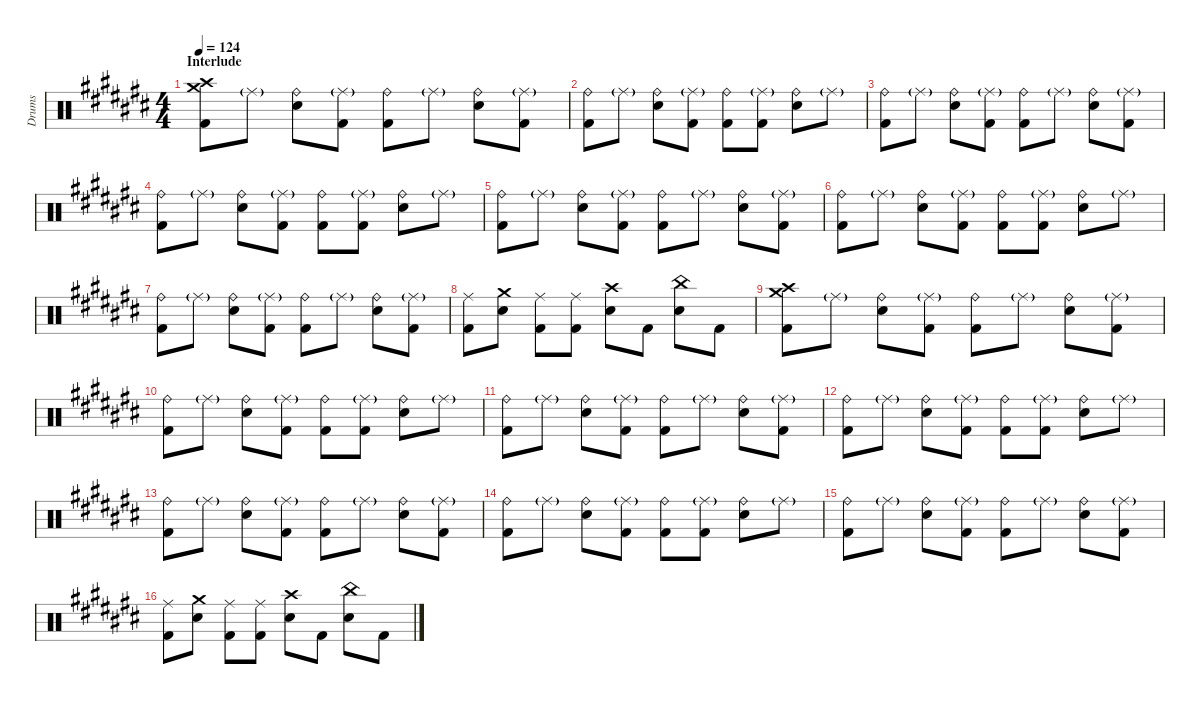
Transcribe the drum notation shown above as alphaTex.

\hideDynamics
\bracketExtendMode nobrackets
\otherSystemsTrackNameOrientation horizontal
\track ("Drumkit" "Drums") {defaultSystemsLayout 4 instrument percussion}
\staff {score}
\articulation defaults
\ts (4 4)
\section ("" "Interlude")
\tempo 124
\clef neutral
\ks c#
("Crash medium (hit)"{acc forcenatural} "Kick (hit) 2"{acc forcenatural} "Crash high (hit)"{acc forcenatural}).8{dy ff beam Down} "Ride (middle)"{g acc forcenatural}.8{beam Down} ("Ride (bell)"{acc forcenatural} "Snare (hit) 2"{acc forcenatural}).8{beam Down} ("Ride (middle)"{g acc forcenatural} "Kick (hit) 2"{acc forcenatural}).8{beam Down} ("Ride (bell)"{acc forcenatural} "Kick (hit) 2"{acc forcenatural}).8{beam Down} "Ride (middle)"{g acc forcenatural}.8{beam Down} ("Ride (bell)"{acc forcenatural} "Snare (hit) 2"{acc forcenatural}).8{beam Down} ("Ride (middle)"{g acc forcenatural} "Kick (hit) 2"{acc forcenatural}).8{beam Down} |
("Kick (hit) 2"{acc forcenatural} "Ride (bell)"{acc forcenatural}).8{beam Down} "Ride (middle)"{g acc forcenatural}.8{beam Down} ("Ride (bell)"{acc forcenatural} "Snare (hit) 2"{acc forcenatural}).8{beam Down} ("Ride (middle)"{g acc forcenatural} "Kick (hit) 2"{acc forcenatural}).8{beam Down} ("Ride (bell)"{acc forcenatural} "Kick (hit) 2"{acc forcenatural}).8{beam Down} ("Ride (middle)"{g acc forcenatural} "Kick (hit) 2"{acc forcenatural}).8{beam Down} ("Ride (bell)"{acc forcenatural} "Snare (hit) 2"{acc forcenatural}).8{beam Down} "Ride (middle)"{g acc forcenatural}.8{beam Down} |
("Kick (hit) 2"{acc forcenatural} "Ride (bell)"{acc forcenatural}).8{beam Down} "Ride (middle)"{g acc forcenatural}.8{beam Down} ("Ride (bell)"{acc forcenatural} "Snare (hit) 2"{acc forcenatural}).8{beam Down} ("Ride (middle)"{g acc forcenatural} "Kick (hit) 2"{acc forcenatural}).8{beam Down} ("Ride (bell)"{acc forcenatural} "Kick (hit) 2"{acc forcenatural}).8{beam Down} "Ride (middle)"{g acc forcenatural}.8{beam Down} ("Ride (bell)"{acc forcenatural} "Snare (hit) 2"{acc forcenatural}).8{beam Down} ("Ride (middle)"{g acc forcenatural} "Kick (hit) 2"{acc forcenatural}).8{beam Down} |
("Kick (hit) 2"{acc forcenatural} "Ride (bell)"{acc forcenatural}).8{beam Down} "Ride (middle)"{g acc forcenatural}.8{beam Down} ("Ride (bell)"{acc forcenatural} "Snare (hit) 2"{acc forcenatural}).8{beam Down} ("Ride (middle)"{g acc forcenatural} "Kick (hit) 2"{acc forcenatural}).8{beam Down} ("Ride (bell)"{acc forcenatural} "Kick (hit) 2"{acc forcenatural}).8{beam Down} ("Ride (middle)"{g acc forcenatural} "Kick (hit) 2"{acc forcenatural}).8{beam Down} ("Ride (bell)"{acc forcenatural} "Snare (hit) 2"{acc forcenatural}).8{beam Down} "Ride (middle)"{g acc forcenatural}.8{beam Down} |
("Kick (hit) 2"{acc forcenatural} "Ride (bell)"{acc forcenatural}).8{beam Down} "Ride (middle)"{g acc forcenatural}.8{beam Down} ("Ride (bell)"{acc forcenatural} "Snare (hit) 2"{acc forcenatural}).8{beam Down} ("Ride (middle)"{g acc forcenatural} "Kick (hit) 2"{acc forcenatural}).8{beam Down} ("Ride (bell)"{acc forcenatural} "Kick (hit) 2"{acc forcenatural}).8{beam Down} "Ride (middle)"{g acc forcenatural}.8{beam Down} ("Ride (bell)"{acc forcenatural} "Snare (hit) 2"{acc forcenatural}).8{beam Down} ("Ride (middle)"{g acc forcenatural} "Kick (hit) 2"{acc forcenatural}).8{beam Down} |
("Kick (hit) 2"{acc forcenatural} "Ride (bell)"{acc forcenatural}).8{beam Down} "Ride (middle)"{g acc forcenatural}.8{beam Down} ("Ride (bell)"{acc forcenatural} "Snare (hit) 2"{acc forcenatural}).8{beam Down} ("Ride (middle)"{g acc forcenatural} "Kick (hit) 2"{acc forcenatural}).8{beam Down} ("Ride (bell)"{acc forcenatural} "Kick (hit) 2"{acc forcenatural}).8{beam Down} ("Ride (middle)"{g acc forcenatural} "Kick (hit) 2"{acc forcenatural}).8{beam Down} ("Ride (bell)"{acc forcenatural} "Snare (hit) 2"{acc forcenatural}).8{beam Down} "Ride (middle)"{g acc forcenatural}.8{beam Down} |
("Kick (hit) 2"{acc forcenatural} "Ride (bell)"{acc forcenatural}).8{beam Down} "Ride (middle)"{g acc forcenatural}.8{beam Down} ("Ride (bell)"{acc forcenatural} "Snare (hit) 2"{acc forcenatural}).8{beam Down} ("Ride (middle)"{g acc forcenatural} "Kick (hit) 2"{acc forcenatural}).8{beam Down} ("Ride (bell)"{acc forcenatural} "Kick (hit) 2"{acc forcenatural}).8{beam Down} "Ride (middle)"{g acc forcenatural}.8{beam Down} ("Ride (bell)"{acc forcenatural} "Snare (hit) 2"{acc forcenatural}).8{beam Down} ("Ride (middle)"{g acc forcenatural} "Kick (hit) 2"{acc forcenatural}).8{beam Down} |
("Ride (middle)"{acc forcenatural} "Kick (hit) 2"{acc forcenatural}).8{beam Down} ("Crash medium (hit)"{acc forcenatural} "Snare (hit) 2"{acc forcenatural}).8{beam Down} ("Ride (middle)"{acc forcenatural} "Kick (hit) 2"{acc forcenatural}).8{beam Down} ("Ride (middle)"{acc forcenatural} "Kick (hit) 2"{acc forcenatural}).8{beam Down} ("Crash high (hit)"{acc forcenatural} "Snare (hit) 2"{acc forcenatural}).8{beam Down} "Kick (hit) 2"{acc forcenatural}.8{beam Down} ("Snare (hit) 2"{acc forcenatural} "China (hit)"{acc forcenatural}).8{beam Down} "Kick (hit) 2"{acc forcenatural}.8{beam Down} |
("Crash medium (hit)"{acc forcenatural} "Kick (hit) 2"{acc forcenatural} "Crash high (hit)"{acc forcenatural}).8{beam Down} "Ride (middle)"{g acc forcenatural}.8{beam Down} ("Ride (bell)"{acc forcenatural} "Snare (hit) 2"{acc forcenatural}).8{beam Down} ("Ride (middle)"{g acc forcenatural} "Kick (hit) 2"{acc forcenatural}).8{beam Down} ("Ride (bell)"{acc forcenatural} "Kick (hit) 2"{acc forcenatural}).8{beam Down} "Ride (middle)"{g acc forcenatural}.8{beam Down} ("Ride (bell)"{acc forcenatural} "Snare (hit) 2"{acc forcenatural}).8{beam Down} ("Ride (middle)"{g acc forcenatural} "Kick (hit) 2"{acc forcenatural}).8{beam Down} |
("Kick (hit) 2"{acc forcenatural} "Ride (bell)"{acc forcenatural}).8{beam Down} "Ride (middle)"{g acc forcenatural}.8{beam Down} ("Ride (bell)"{acc forcenatural} "Snare (hit) 2"{acc forcenatural}).8{beam Down} ("Ride (middle)"{g acc forcenatural} "Kick (hit) 2"{acc forcenatural}).8{beam Down} ("Ride (bell)"{acc forcenatural} "Kick (hit) 2"{acc forcenatural}).8{beam Down} ("Ride (middle)"{g acc forcenatural} "Kick (hit) 2"{acc forcenatural}).8{beam Down} ("Ride (bell)"{acc forcenatural} "Snare (hit) 2"{acc forcenatural}).8{beam Down} "Ride (middle)"{g acc forcenatural}.8{beam Down} |
("Kick (hit) 2"{acc forcenatural} "Ride (bell)"{acc forcenatural}).8{beam Down} "Ride (middle)"{g acc forcenatural}.8{beam Down} ("Ride (bell)"{acc forcenatural} "Snare (hit) 2"{acc forcenatural}).8{beam Down} ("Ride (middle)"{g acc forcenatural} "Kick (hit) 2"{acc forcenatural}).8{beam Down} ("Ride (bell)"{acc forcenatural} "Kick (hit) 2"{acc forcenatural}).8{beam Down} "Ride (middle)"{g acc forcenatural}.8{beam Down} ("Ride (bell)"{acc forcenatural} "Snare (hit) 2"{acc forcenatural}).8{beam Down} ("Ride (middle)"{g acc forcenatural} "Kick (hit) 2"{acc forcenatural}).8{beam Down} |
("Kick (hit) 2"{acc forcenatural} "Ride (bell)"{acc forcenatural}).8{beam Down} "Ride (middle)"{g acc forcenatural}.8{beam Down} ("Ride (bell)"{acc forcenatural} "Snare (hit) 2"{acc forcenatural}).8{beam Down} ("Ride (middle)"{g acc forcenatural} "Kick (hit) 2"{acc forcenatural}).8{beam Down} ("Ride (bell)"{acc forcenatural} "Kick (hit) 2"{acc forcenatural}).8{beam Down} ("Ride (middle)"{g acc forcenatural} "Kick (hit) 2"{acc forcenatural}).8{beam Down} ("Ride (bell)"{acc forcenatural} "Snare (hit) 2"{acc forcenatural}).8{beam Down} "Ride (middle)"{g acc forcenatural}.8{beam Down} |
("Kick (hit) 2"{acc forcenatural} "Ride (bell)"{acc forcenatural}).8{beam Down} "Ride (middle)"{g acc forcenatural}.8{beam Down} ("Ride (bell)"{acc forcenatural} "Snare (hit) 2"{acc forcenatural}).8{beam Down} ("Ride (middle)"{g acc forcenatural} "Kick (hit) 2"{acc forcenatural}).8{beam Down} ("Ride (bell)"{acc forcenatural} "Kick (hit) 2"{acc forcenatural}).8{beam Down} "Ride (middle)"{g acc forcenatural}.8{beam Down} ("Ride (bell)"{acc forcenatural} "Snare (hit) 2"{acc forcenatural}).8{beam Down} ("Ride (middle)"{g acc forcenatural} "Kick (hit) 2"{acc forcenatural}).8{beam Down} |
("Kick (hit) 2"{acc forcenatural} "Ride (bell)"{acc forcenatural}).8{beam Down} "Ride (middle)"{g acc forcenatural}.8{beam Down} ("Ride (bell)"{acc forcenatural} "Snare (hit) 2"{acc forcenatural}).8{beam Down} ("Ride (middle)"{g acc forcenatural} "Kick (hit) 2"{acc forcenatural}).8{beam Down} ("Ride (bell)"{acc forcenatural} "Kick (hit) 2"{acc forcenatural}).8{beam Down} ("Ride (middle)"{g acc forcenatural} "Kick (hit) 2"{acc forcenatural}).8{beam Down} ("Ride (bell)"{acc forcenatural} "Snare (hit) 2"{acc forcenatural}).8{beam Down} "Ride (middle)"{g acc forcenatural}.8{beam Down} |
("Kick (hit) 2"{acc forcenatural} "Ride (bell)"{acc forcenatural}).8{beam Down} "Ride (middle)"{g acc forcenatural}.8{beam Down} ("Ride (bell)"{acc forcenatural} "Snare (hit) 2"{acc forcenatural}).8{beam Down} ("Ride (middle)"{g acc forcenatural} "Kick (hit) 2"{acc forcenatural}).8{beam Down} ("Ride (bell)"{acc forcenatural} "Kick (hit) 2"{acc forcenatural}).8{beam Down} "Ride (middle)"{g acc forcenatural}.8{beam Down} ("Ride (bell)"{acc forcenatural} "Snare (hit) 2"{acc forcenatural}).8{beam Down} ("Ride (middle)"{g acc forcenatural} "Kick (hit) 2"{acc forcenatural}).8{beam Down} |
("Ride (middle)"{acc forcenatural} "Kick (hit) 2"{acc forcenatural}).8{beam Down} ("Crash medium (hit)"{acc forcenatural} "Snare (hit) 2"{acc forcenatural}).8{beam Down} ("Ride (middle)"{acc forcenatural} "Kick (hit) 2"{acc forcenatural}).8{beam Down} ("Ride (middle)"{acc forcenatural} "Kick (hit) 2"{acc forcenatural}).8{beam Down} ("Crash high (hit)"{acc forcenatural} "Snare (hit) 2"{acc forcenatural}).8{beam Down} "Kick (hit) 2"{acc forcenatural}.8{beam Down} ("Snare (hit) 2"{acc forcenatural} "China (hit)"{acc forcenatural}).8{beam Down} "Kick (hit) 2"{acc forcenatural}.8{beam Down}
